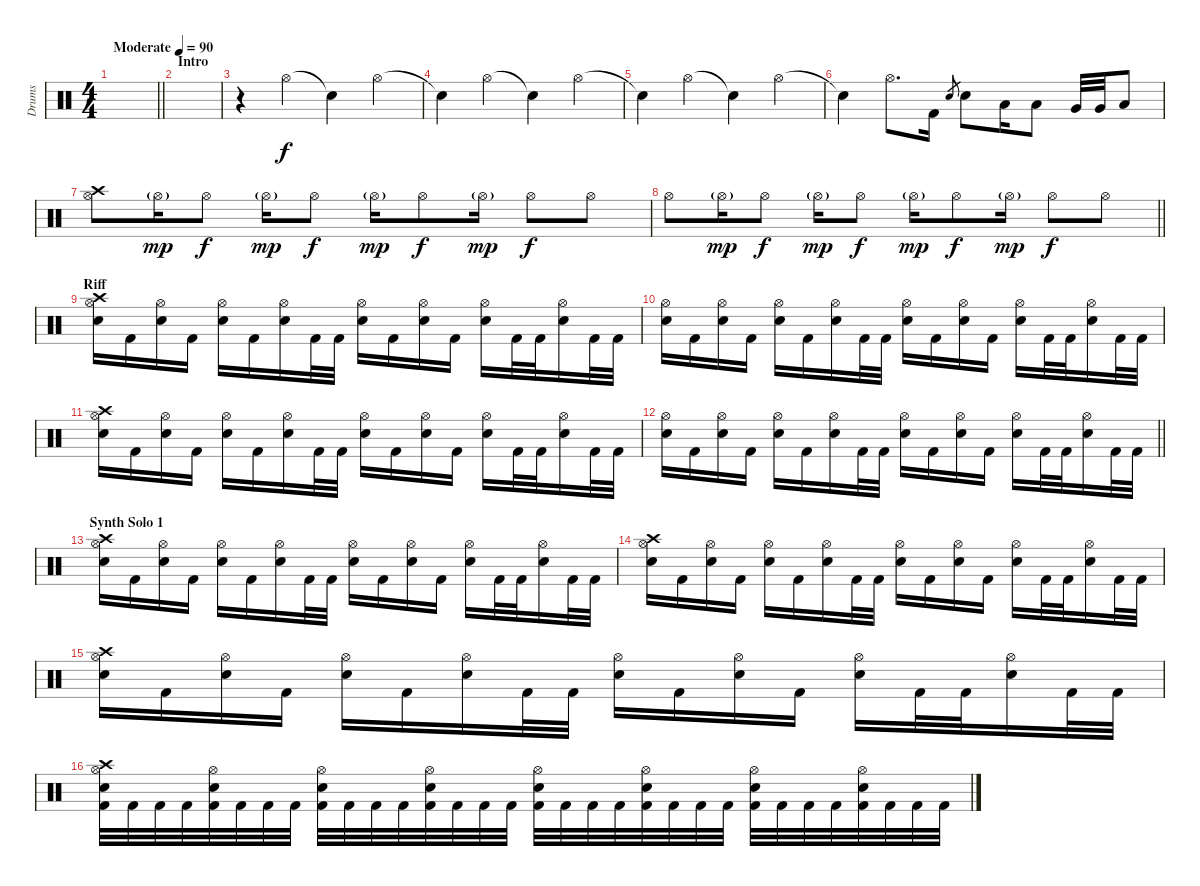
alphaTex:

\track ("Drums" "Drums") {instrument percussion}
\staff {score}
\articulation defaults
\ts (4 4)
\tempo (90 "Moderate")
\clef neutral
\barLineRight lightlight
\ks c
|
\section ("" "Intro")
|
r.4 "Hi-Hat (open)".4 "Snare (hit)"{t}.4 "Hi-Hat (open)".4 |
"Snare (hit)"{t}.4 "Hi-Hat (open)".4 "Snare (hit)"{t}.4 "Hi-Hat (open)".4 |
"Snare (hit)"{t}.4 "Hi-Hat (open)".4 "Snare (hit)"{t}.4 "Hi-Hat (open)".4 |
"Snare (hit)"{t}.4 "Hi-Hat (open)".8{d} "Kick (hit) 2".16 "Snare (hit) 2".8{gr} "Snare (hit) 2".8 "Low Tom (hit)".16 "Low Tom (hit)".8 "Very Low Tom (hit)".32 "Very Low Tom (hit)".32 "Low Floor Tom (hit)".8 |
("Hi-Hat (open)" "Crash high (hit)").8 "Hi-Hat (open)"{g}.16{dy mp} "Hi-Hat (open)".8{dy f} "Hi-Hat (open)"{g}.16{dy mp} "Hi-Hat (open)".8{dy f} "Hi-Hat (open)"{g}.16{dy mp} "Hi-Hat (open)".8{dy f} "Hi-Hat (open)"{g}.16{dy mp} "Hi-Hat (open)".8{dy f} "Hi-Hat (open)".8 |
\barLineRight lightlight "Hi-Hat (open)".8 "Hi-Hat (open)"{g}.16{dy mp} "Hi-Hat (open)".8{dy f} "Hi-Hat (open)"{g}.16{dy mp} "Hi-Hat (open)".8{dy f} "Hi-Hat (open)"{g}.16{dy mp} "Hi-Hat (open)".8{dy f} "Hi-Hat (open)"{g}.16{dy mp} "Hi-Hat (open)".8{dy f} "Hi-Hat (open)".8
|
\section ("" "Riff")
("Snare (hit) 2" "Hi-Hat (open)" "Crash high (hit)").16 "Kick (hit) 2".16 ("Snare (hit) 2" "Hi-Hat (open)").16 "Kick (hit) 2".16 ("Snare (hit) 2" "Hi-Hat (open)").16 "Kick (hit) 2".16 ("Snare (hit) 2" "Hi-Hat (open)").16 "Kick (hit) 2".32 "Kick (hit) 2".32 ("Snare (hit) 2" "Hi-Hat (open)").16 "Kick (hit) 2".16 ("Snare (hit) 2" "Hi-Hat (open)").16 "Kick (hit) 2".16 ("Snare (hit) 2" "Hi-Hat (open)").16 "Kick (hit) 2".32 "Kick (hit) 2".32 ("Snare (hit) 2" "Hi-Hat (open)").16 "Kick (hit) 2".32 "Kick (hit) 2".32 |
("Snare (hit) 2" "Hi-Hat (open)").16 "Kick (hit) 2".16 ("Snare (hit) 2" "Hi-Hat (open)").16 "Kick (hit) 2".16 ("Snare (hit) 2" "Hi-Hat (open)").16 "Kick (hit) 2".16 ("Snare (hit) 2" "Hi-Hat (open)").16 "Kick (hit) 2".32 "Kick (hit) 2".32 ("Snare (hit) 2" "Hi-Hat (open)").16 "Kick (hit) 2".16 ("Snare (hit) 2" "Hi-Hat (open)").16 "Kick (hit) 2".16 ("Snare (hit) 2" "Hi-Hat (open)").16 "Kick (hit) 2".32 "Kick (hit) 2".32 ("Snare (hit) 2" "Hi-Hat (open)").16 "Kick (hit) 2".32 "Kick (hit) 2".32 |
("Snare (hit) 2" "Hi-Hat (open)" "Crash high (hit)").16 "Kick (hit) 2".16 ("Snare (hit) 2" "Hi-Hat (open)").16 "Kick (hit) 2".16 ("Snare (hit) 2" "Hi-Hat (open)").16 "Kick (hit) 2".16 ("Snare (hit) 2" "Hi-Hat (open)").16 "Kick (hit) 2".32 "Kick (hit) 2".32 ("Snare (hit) 2" "Hi-Hat (open)").16 "Kick (hit) 2".16 ("Snare (hit) 2" "Hi-Hat (open)").16 "Kick (hit) 2".16 ("Snare (hit) 2" "Hi-Hat (open)").16 "Kick (hit) 2".32 "Kick (hit) 2".32 ("Snare (hit) 2" "Hi-Hat (open)").16 "Kick (hit) 2".32 "Kick (hit) 2".32 |
\barLineRight lightlight
("Snare (hit) 2" "Hi-Hat (open)").16 "Kick (hit) 2".16 ("Snare (hit) 2" "Hi-Hat (open)").16 "Kick (hit) 2".16 ("Snare (hit) 2" "Hi-Hat (open)").16 "Kick (hit) 2".16 ("Snare (hit) 2" "Hi-Hat (open)").16 "Kick (hit) 2".32 "Kick (hit) 2".32 ("Snare (hit) 2" "Hi-Hat (open)").16 "Kick (hit) 2".16 ("Snare (hit) 2" "Hi-Hat (open)").16 "Kick (hit) 2".16 ("Snare (hit) 2" "Hi-Hat (open)").16 "Kick (hit) 2".32 "Kick (hit) 2".32 ("Snare (hit) 2" "Hi-Hat (open)").16 "Kick (hit) 2".32 "Kick (hit) 2".32 |
\section ("" "Synth Solo 1")
("Snare (hit) 2" "Hi-Hat (open)" "Crash high (hit)").16 "Kick (hit) 2".16 ("Snare (hit) 2" "Hi-Hat (open)").16 "Kick (hit) 2".16 ("Snare (hit) 2" "Hi-Hat (open)").16 "Kick (hit) 2".16 ("Snare (hit) 2" "Hi-Hat (open)").16 "Kick (hit) 2".32 "Kick (hit) 2".32 ("Snare (hit) 2" "Hi-Hat (open)").16 "Kick (hit) 2".16 ("Snare (hit) 2" "Hi-Hat (open)").16 "Kick (hit) 2".16 ("Snare (hit) 2" "Hi-Hat (open)").16 "Kick (hit) 2".32 "Kick (hit) 2".32 ("Snare (hit) 2" "Hi-Hat (open)").16 "Kick (hit) 2".32 "Kick (hit) 2".32 |
("Snare (hit) 2" "Hi-Hat (open)" "Crash high (hit)").16 "Kick (hit) 2".16 ("Snare (hit) 2" "Hi-Hat (open)").16 "Kick (hit) 2".16 ("Snare (hit) 2" "Hi-Hat (open)").16 "Kick (hit) 2".16 ("Snare (hit) 2" "Hi-Hat (open)").16 "Kick (hit) 2".32 "Kick (hit) 2".32 ("Snare (hit) 2" "Hi-Hat (open)").16 "Kick (hit) 2".16 ("Snare (hit) 2" "Hi-Hat (open)").16 "Kick (hit) 2".16 ("Snare (hit) 2" "Hi-Hat (open)").16 "Kick (hit) 2".32 "Kick (hit) 2".32 ("Snare (hit) 2" "Hi-Hat (open)").16 "Kick (hit) 2".32 "Kick (hit) 2".32 |
("Snare (hit) 2" "Hi-Hat (open)" "Crash high (hit)").16 "Kick (hit) 2".16 ("Snare (hit) 2" "Hi-Hat (open)").16 "Kick (hit) 2".16 ("Snare (hit) 2" "Hi-Hat (open)").16 "Kick (hit) 2".16 ("Snare (hit) 2" "Hi-Hat (open)").16 "Kick (hit) 2".32 "Kick (hit) 2".32 ("Snare (hit) 2" "Hi-Hat (open)").16 "Kick (hit) 2".16 ("Snare (hit) 2" "Hi-Hat (open)").16 "Kick (hit) 2".16 ("Snare (hit) 2" "Hi-Hat (open)").16 "Kick (hit) 2".32 "Kick (hit) 2".32 ("Snare (hit) 2" "Hi-Hat (open)").16 "Kick (hit) 2".32 "Kick (hit) 2".32 |
("Snare (hit) 2" "Kick (hit) 2" "Hi-Hat (open)" "Crash high (hit)").32 "Kick (hit) 2".32 "Kick (hit) 2".32 "Kick (hit) 2".32 ("Snare (hit) 2" "Kick (hit) 2" "Hi-Hat (open)").32 "Kick (hit) 2".32 "Kick (hit) 2".32 "Kick (hit) 2".32 ("Snare (hit) 2" "Kick (hit) 2" "Hi-Hat (open)").32 "Kick (hit) 2".32 "Kick (hit) 2".32 "Kick (hit) 2".32 ("Snare (hit) 2" "Kick (hit) 2" "Hi-Hat (open)").32 "Kick (hit) 2".32 "Kick (hit) 2".32 "Kick (hit) 2".32 ("Snare (hit) 2" "Kick (hit) 2" "Hi-Hat (open)").32 "Kick (hit) 2".32 "Kick (hit) 2".32 "Kick (hit) 2".32 ("Snare (hit) 2" "Kick (hit) 2" "Hi-Hat (open)").32 "Kick (hit) 2".32 "Kick (hit) 2".32 "Kick (hit) 2".32 ("Snare (hit) 2" "Kick (hit) 2" "Hi-Hat (open)").32 "Kick (hit) 2".32 "Kick (hit) 2".32 "Kick (hit) 2".32 ("Snare (hit) 2" "Kick (hit) 2" "Hi-Hat (open)").32 "Kick (hit) 2".32 "Kick (hit) 2".32 "Kick (hit) 2".32
